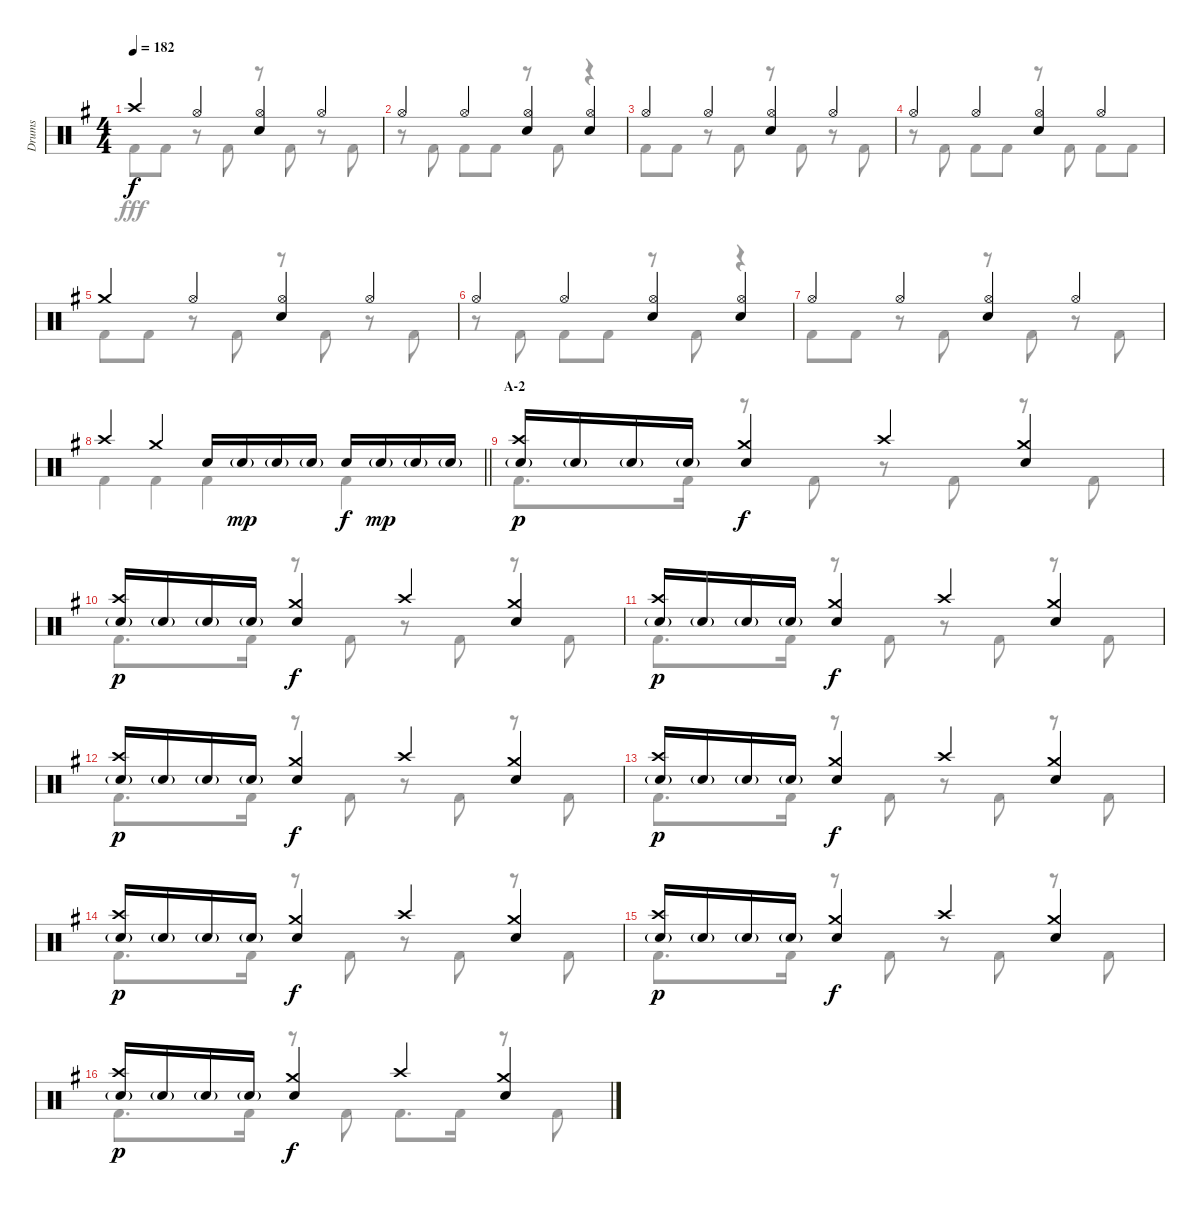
\track ("Drums" "Drums") {instrument percussion}
\staff {score}
\articulation defaults
\voice
\ts (4 4)
\tempo 182
\clef neutral
\ks g "Crash high (hit)".4{dy f} "Hi-Hat (open)".4
("Hi-Hat (open)" "Snare (hit) 2").4 "Hi-Hat (open)".4 |
"Hi-Hat (open)".4 "Hi-Hat (open)".4 ("Hi-Hat (open)" "Snare (hit) 2").4 ("Hi-Hat (open)" "Snare (hit) 2").4 |
"Hi-Hat (open)".4 "Hi-Hat (open)".4 ("Hi-Hat (open)" "Snare (hit) 2").4 "Hi-Hat (open)".4 |
"Hi-Hat (open)".4 "Hi-Hat (open)".4 ("Hi-Hat (open)" "Snare (hit) 2").4 "Hi-Hat (open)".4 |
"Crash medium (hit)".4 "Hi-Hat (open)".4 ("Hi-Hat (open)" "Snare (hit) 2").4 "Hi-Hat (open)".4 |
"Hi-Hat (open)".4 "Hi-Hat (open)".4 ("Hi-Hat (open)" "Snare (hit) 2").4 ("Hi-Hat (open)" "Snare (hit) 2").4 |
"Hi-Hat (open)".4 "Hi-Hat (open)".4 ("Hi-Hat (open)" "Snare (hit) 2").4 "Hi-Hat (open)".4 |
\barLineRight lightlight "Crash high (hit)".4 "Crash medium (hit)".4 "Snare (hit) 2".16 "Snare (hit) 2"{g}.16{dy mp} "Snare (hit) 2"{g}.16 "Snare (hit) 2"{g}.16 "Snare (hit) 2".16{dy f} "Snare (hit) 2"{g}.16{dy mp} "Snare (hit) 2"{g}.16 "Snare (hit) 2"{g}.16
|
\section ("" "A-2")
("Crash high (hit)" "Snare (hit) 2"{g}).16{dy p} "Snare (hit) 2"{g}.16 "Snare (hit) 2"{g}.16 "Snare (hit) 2"{g}.16 ("Crash medium (hit)" "Snare (hit) 2").4{dy f} "Crash high (hit)".4 ("Crash medium (hit)" "Snare (hit) 2").4 |
("Crash high (hit)" "Snare (hit) 2"{g}).16{dy p} "Snare (hit) 2"{g}.16 "Snare (hit) 2"{g}.16 "Snare (hit) 2"{g}.16 ("Crash medium (hit)" "Snare (hit) 2").4{dy f} "Crash high (hit)".4 ("Crash medium (hit)" "Snare (hit) 2").4 |
("Crash high (hit)" "Snare (hit) 2"{g}).16{dy p} "Snare (hit) 2"{g}.16 "Snare (hit) 2"{g}.16 "Snare (hit) 2"{g}.16 ("Crash medium (hit)" "Snare (hit) 2").4{dy f} "Crash high (hit)".4 ("Crash medium (hit)" "Snare (hit) 2").4 |
("Crash high (hit)" "Snare (hit) 2"{g}).16{dy p} "Snare (hit) 2"{g}.16 "Snare (hit) 2"{g}.16 "Snare (hit) 2"{g}.16 ("Crash medium (hit)" "Snare (hit) 2").4{dy f} "Crash high (hit)".4 ("Crash medium (hit)" "Snare (hit) 2").4 |
("Crash high (hit)" "Snare (hit) 2"{g}).16{dy p} "Snare (hit) 2"{g}.16 "Snare (hit) 2"{g}.16 "Snare (hit) 2"{g}.16 ("Crash medium (hit)" "Snare (hit) 2").4{dy f} "Crash high (hit)".4 ("Crash medium (hit)" "Snare (hit) 2").4 |
("Crash high (hit)" "Snare (hit) 2"{g}).16{dy p} "Snare (hit) 2"{g}.16 "Snare (hit) 2"{g}.16 "Snare (hit) 2"{g}.16 ("Crash medium (hit)" "Snare (hit) 2").4{dy f} "Crash high (hit)".4 ("Crash medium (hit)" "Snare (hit) 2").4 |
("Crash high (hit)" "Snare (hit) 2"{g}).16{dy p} "Snare (hit) 2"{g}.16 "Snare (hit) 2"{g}.16 "Snare (hit) 2"{g}.16 ("Crash medium (hit)" "Snare (hit) 2").4{dy f} "Crash high (hit)".4 ("Crash medium (hit)" "Snare (hit) 2").4 |
("Crash high (hit)" "Snare (hit) 2"{g}).16{dy p} "Snare (hit) 2"{g}.16 "Snare (hit) 2"{g}.16 "Snare (hit) 2"{g}.16 ("Crash medium (hit)" "Snare (hit) 2").4{dy f} "Crash high (hit)".4 ("Crash medium (hit)" "Snare (hit) 2").4
\voice
\clef neutral
\ottava regular
\simile none
\ks g "Kick (hit) 2".8{dy fff} "Kick (hit) 2".8
r.8 "Kick (hit) 2".8 r.8 "Kick (hit) 2".8 r.8 "Kick (hit) 2".8 |
r.8 "Kick (hit) 2".8 "Kick (hit) 2".8 "Kick (hit) 2".8 r.8 "Kick (hit) 2".8 r.4 |
"Kick (hit) 2".8 "Kick (hit) 2".8 r.8 "Kick (hit) 2".8 r.8 "Kick (hit) 2".8 r.8 "Kick (hit) 2".8 |
r.8 "Kick (hit) 2".8 "Kick (hit) 2".8 "Kick (hit) 2".8 r.8 "Kick (hit) 2".8 "Kick (hit) 2".8 "Kick (hit) 2".8 |
"Kick (hit) 2".8 "Kick (hit) 2".8 r.8 "Kick (hit) 2".8 r.8 "Kick (hit) 2".8 r.8 "Kick (hit) 2".8 |
r.8 "Kick (hit) 2".8 "Kick (hit) 2".8 "Kick (hit) 2".8 r.8 "Kick (hit) 2".8 r.4 |
"Kick (hit) 2".8 "Kick (hit) 2".8 r.8 "Kick (hit) 2".8 r.8 "Kick (hit) 2".8 r.8 "Kick (hit) 2".8 |
\barLineRight lightlight "Kick (hit) 2".4 "Kick (hit) 2".4 "Kick (hit) 2".4 "Kick (hit) 2".4
|
"Kick (hit) 2".8{d} "Kick (hit) 2".16 r.8 "Kick (hit) 2".8 r.8 "Kick (hit) 2".8 r.8 "Kick (hit) 2".8 |
"Kick (hit) 2".8{d} "Kick (hit) 2".16 r.8 "Kick (hit) 2".8 r.8 "Kick (hit) 2".8 r.8 "Kick (hit) 2".8 |
"Kick (hit) 2".8{d} "Kick (hit) 2".16 r.8 "Kick (hit) 2".8 r.8 "Kick (hit) 2".8 r.8 "Kick (hit) 2".8 |
"Kick (hit) 2".8{d} "Kick (hit) 2".16 r.8 "Kick (hit) 2".8 r.8 "Kick (hit) 2".8 r.8 "Kick (hit) 2".8 |
"Kick (hit) 2".8{d} "Kick (hit) 2".16 r.8 "Kick (hit) 2".8 r.8 "Kick (hit) 2".8 r.8 "Kick (hit) 2".8 |
"Kick (hit) 2".8{d} "Kick (hit) 2".16 r.8 "Kick (hit) 2".8 r.8 "Kick (hit) 2".8 r.8 "Kick (hit) 2".8 |
"Kick (hit) 2".8{d} "Kick (hit) 2".16 r.8 "Kick (hit) 2".8 r.8 "Kick (hit) 2".8 r.8 "Kick (hit) 2".8 |
"Kick (hit) 2".8{d} "Kick (hit) 2".16 r.8 "Kick (hit) 2".8 "Kick (hit) 2".8{d} "Kick (hit) 2".16 r.8 "Kick (hit) 2".8
